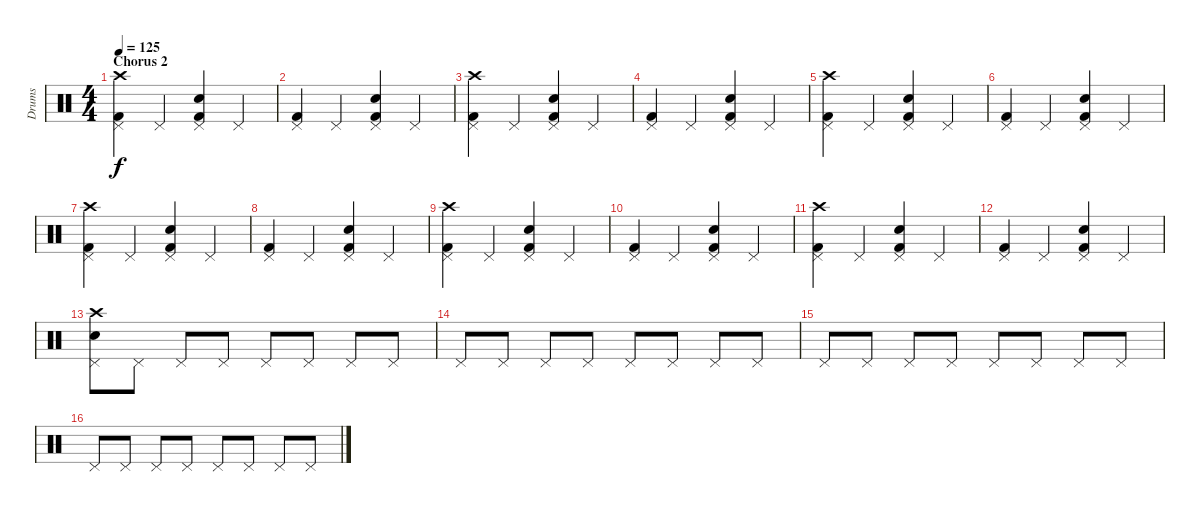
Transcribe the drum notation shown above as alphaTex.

\track ("Drums" "Drums") {instrument percussion}
\staff {score}
\articulation defaults
\ts (4 4)
\section ("" "Chorus 2")
\tempo 125
\clef neutral
\ks c
("Crash high (hit)" "Pedal Hi-Hat (hit)" "Kick (hit) 2").4{dy f} "Pedal Hi-Hat (hit)".4 ("Pedal Hi-Hat (hit)" "Electric Snare (hit)" "Kick (hit) 2").4 "Pedal Hi-Hat (hit)".4 |
("Pedal Hi-Hat (hit)" "Kick (hit) 2").4 "Pedal Hi-Hat (hit)".4 ("Pedal Hi-Hat (hit)" "Electric Snare (hit)" "Kick (hit) 2").4 "Pedal Hi-Hat (hit)".4 |
("Crash high (hit)" "Pedal Hi-Hat (hit)" "Kick (hit) 2").4 "Pedal Hi-Hat (hit)".4 ("Pedal Hi-Hat (hit)" "Electric Snare (hit)" "Kick (hit) 2").4 "Pedal Hi-Hat (hit)".4 |
("Pedal Hi-Hat (hit)" "Kick (hit) 2").4 "Pedal Hi-Hat (hit)".4 ("Pedal Hi-Hat (hit)" "Electric Snare (hit)" "Kick (hit) 2").4 "Pedal Hi-Hat (hit)".4 |
("Crash high (hit)" "Pedal Hi-Hat (hit)" "Kick (hit) 2").4 "Pedal Hi-Hat (hit)".4 ("Pedal Hi-Hat (hit)" "Electric Snare (hit)" "Kick (hit) 2").4 "Pedal Hi-Hat (hit)".4 |
("Pedal Hi-Hat (hit)" "Kick (hit) 2").4 "Pedal Hi-Hat (hit)".4 ("Pedal Hi-Hat (hit)" "Electric Snare (hit)" "Kick (hit) 2").4 "Pedal Hi-Hat (hit)".4 |
("Crash high (hit)" "Pedal Hi-Hat (hit)" "Kick (hit) 2").4 "Pedal Hi-Hat (hit)".4 ("Pedal Hi-Hat (hit)" "Electric Snare (hit)" "Kick (hit) 2").4 "Pedal Hi-Hat (hit)".4 |
("Pedal Hi-Hat (hit)" "Kick (hit) 2").4 "Pedal Hi-Hat (hit)".4 ("Pedal Hi-Hat (hit)" "Electric Snare (hit)" "Kick (hit) 2").4 "Pedal Hi-Hat (hit)".4 |
("Crash high (hit)" "Pedal Hi-Hat (hit)" "Kick (hit) 2").4 "Pedal Hi-Hat (hit)".4 ("Pedal Hi-Hat (hit)" "Electric Snare (hit)" "Kick (hit) 2").4 "Pedal Hi-Hat (hit)".4 |
("Pedal Hi-Hat (hit)" "Kick (hit) 2").4 "Pedal Hi-Hat (hit)".4 ("Pedal Hi-Hat (hit)" "Electric Snare (hit)" "Kick (hit) 2").4 "Pedal Hi-Hat (hit)".4 |
("Crash high (hit)" "Pedal Hi-Hat (hit)" "Kick (hit) 2").4 "Pedal Hi-Hat (hit)".4 ("Pedal Hi-Hat (hit)" "Electric Snare (hit)" "Kick (hit) 2").4 "Pedal Hi-Hat (hit)".4 |
("Pedal Hi-Hat (hit)" "Kick (hit) 2").4 "Pedal Hi-Hat (hit)".4 ("Pedal Hi-Hat (hit)" "Electric Snare (hit)" "Kick (hit) 2").4 "Pedal Hi-Hat (hit)".4 |
("Crash high (hit)" "Electric Snare (hit)" "Pedal Hi-Hat (hit)").8 "Pedal Hi-Hat (hit)".8 "Pedal Hi-Hat (hit)".8 "Pedal Hi-Hat (hit)".8 "Pedal Hi-Hat (hit)".8 "Pedal Hi-Hat (hit)".8 "Pedal Hi-Hat (hit)".8{volume 4} "Pedal Hi-Hat (hit)".8 |
"Pedal Hi-Hat (hit)".8 "Pedal Hi-Hat (hit)".8 "Pedal Hi-Hat (hit)".8 "Pedal Hi-Hat (hit)".8 "Pedal Hi-Hat (hit)".8 "Pedal Hi-Hat (hit)".8 "Pedal Hi-Hat (hit)".8 "Pedal Hi-Hat (hit)".8 |
"Pedal Hi-Hat (hit)".8 "Pedal Hi-Hat (hit)".8 "Pedal Hi-Hat (hit)".8 "Pedal Hi-Hat (hit)".8 "Pedal Hi-Hat (hit)".8 "Pedal Hi-Hat (hit)".8 "Pedal Hi-Hat (hit)".8 "Pedal Hi-Hat (hit)".8 |
"Pedal Hi-Hat (hit)".8 "Pedal Hi-Hat (hit)".8 "Pedal Hi-Hat (hit)".8 "Pedal Hi-Hat (hit)".8 "Pedal Hi-Hat (hit)".8 "Pedal Hi-Hat (hit)".8 "Pedal Hi-Hat (hit)".8 "Pedal Hi-Hat (hit)".8
